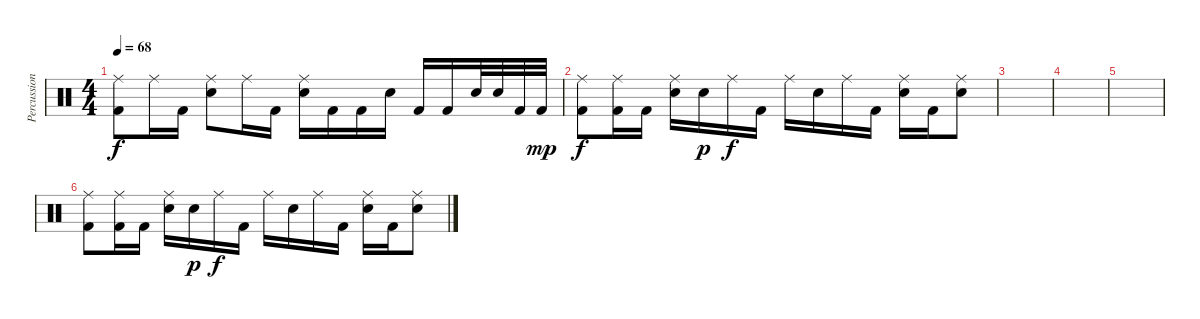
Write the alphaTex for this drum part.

\track ("Percussion" "Percussion") {instrument percussion}
\staff {score}
\articulation defaults
\ts (4 4)
\tempo 68
\clef neutral
\ks c
("Ride (middle)" "Kick (hit) 2").8{dy f} "Ride (middle)".16 "Kick (hit) 2".16 ("Ride (middle)" "Snare (hit) 2").8 "Ride (middle)".16 "Kick (hit) 2".16 ("Ride (middle)" "Snare (hit) 2").16 "Kick (hit) 2".16 "Kick (hit) 2".16 "Snare (hit) 2".16 "Kick (hit) 2".16 "Kick (hit) 2".16 "Snare (hit) 2".32 "Snare (hit) 2".32 "Kick (hit) 2".32 "Kick (hit) 2".32{dy mp} |
("Ride (middle)" "Kick (hit) 2").8{dy f} ("Ride (middle)" "Kick (hit) 2").16 "Kick (hit) 2".16 ("Ride (middle)" "Snare (hit) 2").16 "Snare (hit) 2".16{dy p} "Ride (middle)".16{dy f} "Kick (hit) 2".16 "Ride (middle)".16 "Snare (hit) 2".16 "Ride (middle)".16 "Kick (hit) 2".16 ("Ride (middle)" "Snare (hit) 2").16 "Kick (hit) 2".16 ("Ride (middle)" "Snare (hit) 2").8 |
|
|
|
("Ride (middle)" "Kick (hit) 2").8 ("Ride (middle)" "Kick (hit) 2").16 "Kick (hit) 2".16 ("Ride (middle)" "Snare (hit) 2").16 "Snare (hit) 2".16{dy p} "Ride (middle)".16{dy f} "Kick (hit) 2".16 "Ride (middle)".16 "Snare (hit) 2".16 "Ride (middle)".16 "Kick (hit) 2".16 ("Ride (middle)" "Snare (hit) 2").16 "Kick (hit) 2".16 ("Ride (middle)" "Snare (hit) 2").8
